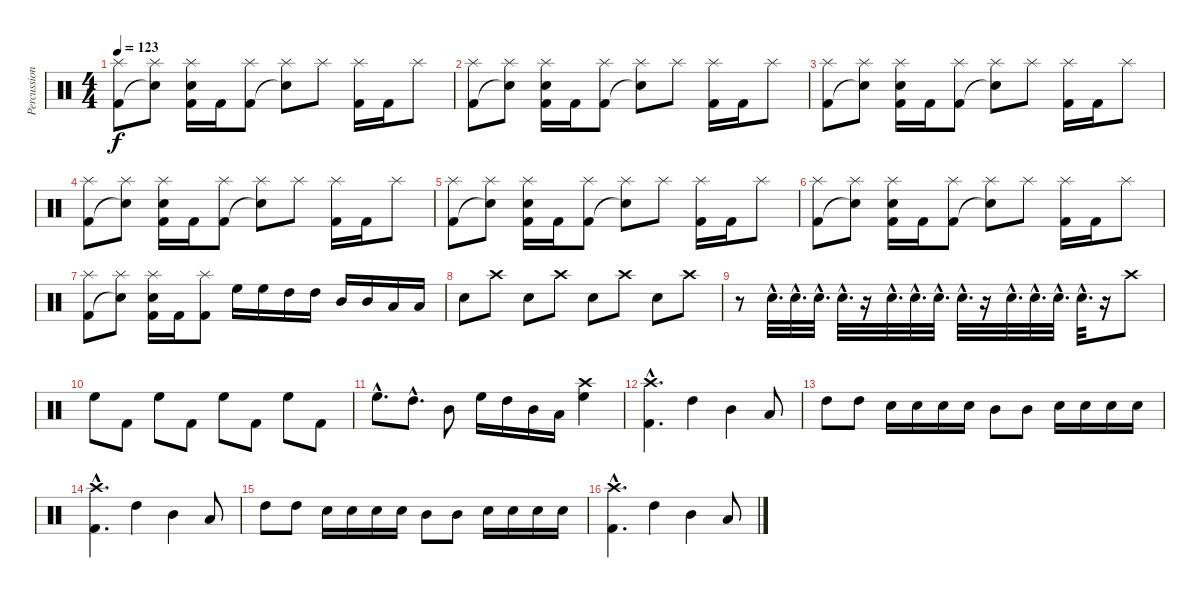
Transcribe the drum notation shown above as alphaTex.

\track ("Percussion" "Percussion") {instrument percussion}
\staff {score}
\articulation defaults
\ts (4 4)
\tempo 123
\clef neutral
\ks c
("Kick (hit) 2" "Splash (hit)").8{dy f} ("Snare (hit)"{t} "Splash (hit)").8 ("Electric Snare (hit)" "Kick (hit) 2" "Splash (hit)").16 "Kick (hit) 2".16 ("Kick (hit) 2" "Splash (hit)").8 ("Snare (hit)"{t} "Splash (hit)").8 "Splash (hit)".8 ("Kick (hit) 2" "Splash (hit)").16 "Kick (hit) 2".16 "Splash (hit)".8 |
("Kick (hit) 2" "Splash (hit)").8 ("Snare (hit)"{t} "Splash (hit)").8 ("Electric Snare (hit)" "Kick (hit) 2" "Splash (hit)").16 "Kick (hit) 2".16 ("Kick (hit) 2" "Splash (hit)").8 ("Snare (hit)"{t} "Splash (hit)").8 "Splash (hit)".8 ("Kick (hit) 2" "Splash (hit)").16 "Kick (hit) 2".16 "Splash (hit)".8 |
("Kick (hit) 2" "Splash (hit)").8 ("Snare (hit)"{t} "Splash (hit)").8 ("Electric Snare (hit)" "Kick (hit) 2" "Splash (hit)").16 "Kick (hit) 2".16 ("Kick (hit) 2" "Splash (hit)").8 ("Snare (hit)"{t} "Splash (hit)").8 "Splash (hit)".8 ("Kick (hit) 2" "Splash (hit)").16 "Kick (hit) 2".16 "Splash (hit)".8 |
("Kick (hit) 2" "Splash (hit)").8 ("Snare (hit)"{t} "Splash (hit)").8 ("Electric Snare (hit)" "Kick (hit) 2" "Splash (hit)").16 "Kick (hit) 2".16 ("Kick (hit) 2" "Splash (hit)").8 ("Snare (hit)"{t} "Splash (hit)").8 "Splash (hit)".8 ("Kick (hit) 2" "Splash (hit)").16 "Kick (hit) 2".16 "Splash (hit)".8 |
("Kick (hit) 2" "Splash (hit)").8 ("Snare (hit)"{t} "Splash (hit)").8 ("Electric Snare (hit)" "Kick (hit) 2" "Splash (hit)").16 "Kick (hit) 2".16 ("Kick (hit) 2" "Splash (hit)").8 ("Snare (hit)"{t} "Splash (hit)").8 "Splash (hit)".8 ("Kick (hit) 2" "Splash (hit)").16 "Kick (hit) 2".16 "Splash (hit)".8 |
("Kick (hit) 2" "Splash (hit)").8 ("Snare (hit)"{t} "Splash (hit)").8 ("Electric Snare (hit)" "Kick (hit) 2" "Splash (hit)").16 "Kick (hit) 2".16 ("Kick (hit) 2" "Splash (hit)").8 ("Snare (hit)"{t} "Splash (hit)").8 "Splash (hit)".8 ("Kick (hit) 2" "Splash (hit)").16 "Kick (hit) 2".16 "Splash (hit)".8 |
("Kick (hit) 2" "Splash (hit)").8 ("Snare (hit)"{t} "Splash (hit)").8 ("Electric Snare (hit)" "Kick (hit) 2" "Splash (hit)").16 "Kick (hit) 2".16 ("Kick (hit) 2" "Splash (hit)").8 "High Floor Tom (hit)".16 "High Floor Tom (hit)".16 "High Tom (hit)".16 "High Tom (hit)".16 "Mid Tom (hit)".16 "Mid Tom (hit)".16 "Low Tom (hit)".16 "Low Tom (hit)".16 |
"Electric Snare (hit)".8 "Crash high (hit)".8 "Electric Snare (hit)".8 "Crash high (hit)".8 "Electric Snare (hit)".8 "Crash high (hit)".8 "Electric Snare (hit)".8 "Crash high (hit)".8 |
r.8 "Electric Snare (hit)"{hac}.32{d} "Electric Snare (hit)"{hac}.32{d} "Electric Snare (hit)"{hac}.32{d} "Electric Snare (hit)"{hac}.32{d} r.16 "Electric Snare (hit)"{hac}.32{d} "Electric Snare (hit)"{hac}.32{d} "Electric Snare (hit)"{hac}.32{d} "Electric Snare (hit)"{hac}.32{d} r.16 "Electric Snare (hit)"{hac}.32{d} "Electric Snare (hit)"{hac}.32{d} "Electric Snare (hit)"{hac}.32{d} "Electric Snare (hit)"{hac}.32{d} r.16 "Crash high (hit)".8 |
"High Floor Tom (hit)".8 "Kick (hit) 2".8 "High Floor Tom (hit)".8 "Kick (hit) 2".8 "High Floor Tom (hit)".8 "Kick (hit) 2".8 "High Floor Tom (hit)".8 "Kick (hit) 2".8 |
"High Floor Tom (hit)"{hac}.8{d} "High Tom (hit)"{hac}.8{d} "Mid Tom (hit)".8 "High Floor Tom (hit)".16 "High Tom (hit)".16 "Mid Tom (hit)".16 "Low Tom (hit)".16 ("Crash high (hit)" "High Floor Tom (hit)").4 |
("Crash high (hit)"{hac} "Kick (hit) 2"{hac}).4{d} "High Tom (hit)".4 "Mid Tom (hit)".4 "Low Tom (hit)".8 |
"High Tom (hit)".8 "High Tom (hit)".8 "Electric Snare (hit)".16 "Electric Snare (hit)".16 "Electric Snare (hit)".16 "Electric Snare (hit)".16 "Mid Tom (hit)".8 "Mid Tom (hit)".8 "Electric Snare (hit)".16 "Electric Snare (hit)".16 "Electric Snare (hit)".16 "Electric Snare (hit)".16 |
("Crash high (hit)"{hac} "Kick (hit) 2"{hac}).4{d} "High Tom (hit)".4 "Mid Tom (hit)".4 "Low Tom (hit)".8 |
"High Tom (hit)".8 "High Tom (hit)".8 "Electric Snare (hit)".16 "Electric Snare (hit)".16 "Electric Snare (hit)".16 "Electric Snare (hit)".16 "Mid Tom (hit)".8 "Mid Tom (hit)".8 "Electric Snare (hit)".16 "Electric Snare (hit)".16 "Electric Snare (hit)".16 "Electric Snare (hit)".16 |
("Crash high (hit)"{hac} "Kick (hit) 2"{hac}).4{d} "High Tom (hit)".4 "Mid Tom (hit)".4 "Low Tom (hit)".8
